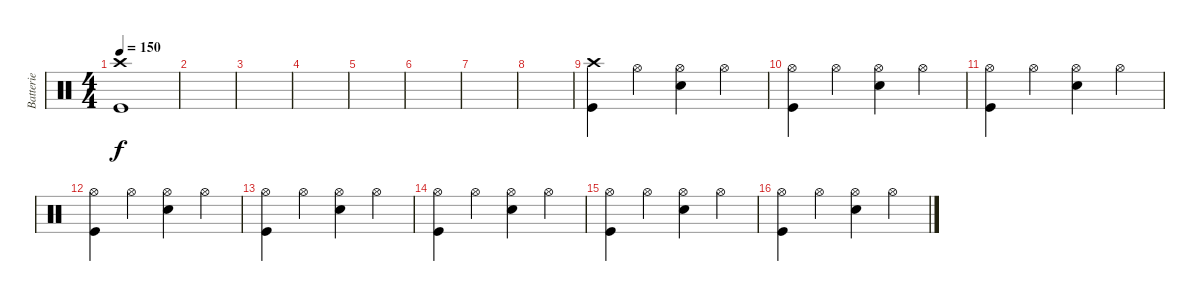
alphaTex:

\track ("Batterie" "Batterie") {instrument percussion}
\staff {score}
\articulation defaults
\ts (4 4)
\tempo 150
\clef neutral
\ks c
("Crash high (hit)" "Kick (hit)").1{dy f} |
|
|
|
|
|
|
|
("Crash high (hit)" "Kick (hit)").4 "Hi-Hat (open)".4 ("Hi-Hat (open)" "Electric Snare (hit)").4 "Hi-Hat (open)".4 |
("Hi-Hat (open)" "Kick (hit)").4 "Hi-Hat (open)".4 ("Hi-Hat (open)" "Electric Snare (hit)").4 "Hi-Hat (open)".4 |
("Hi-Hat (open)" "Kick (hit)").4 "Hi-Hat (open)".4 ("Hi-Hat (open)" "Electric Snare (hit)").4 "Hi-Hat (open)".4 |
("Hi-Hat (open)" "Kick (hit)").4 "Hi-Hat (open)".4 ("Hi-Hat (open)" "Electric Snare (hit)").4 "Hi-Hat (open)".4 |
("Hi-Hat (open)" "Kick (hit)").4 "Hi-Hat (open)".4 ("Hi-Hat (open)" "Electric Snare (hit)").4 "Hi-Hat (open)".4 |
("Hi-Hat (open)" "Kick (hit)").4 "Hi-Hat (open)".4 ("Hi-Hat (open)" "Electric Snare (hit)").4 "Hi-Hat (open)".4 |
("Hi-Hat (open)" "Kick (hit)").4 "Hi-Hat (open)".4 ("Hi-Hat (open)" "Electric Snare (hit)").4 "Hi-Hat (open)".4 |
("Hi-Hat (open)" "Kick (hit)").4 "Hi-Hat (open)".4 ("Hi-Hat (open)" "Electric Snare (hit)").4 "Hi-Hat (open)".4
